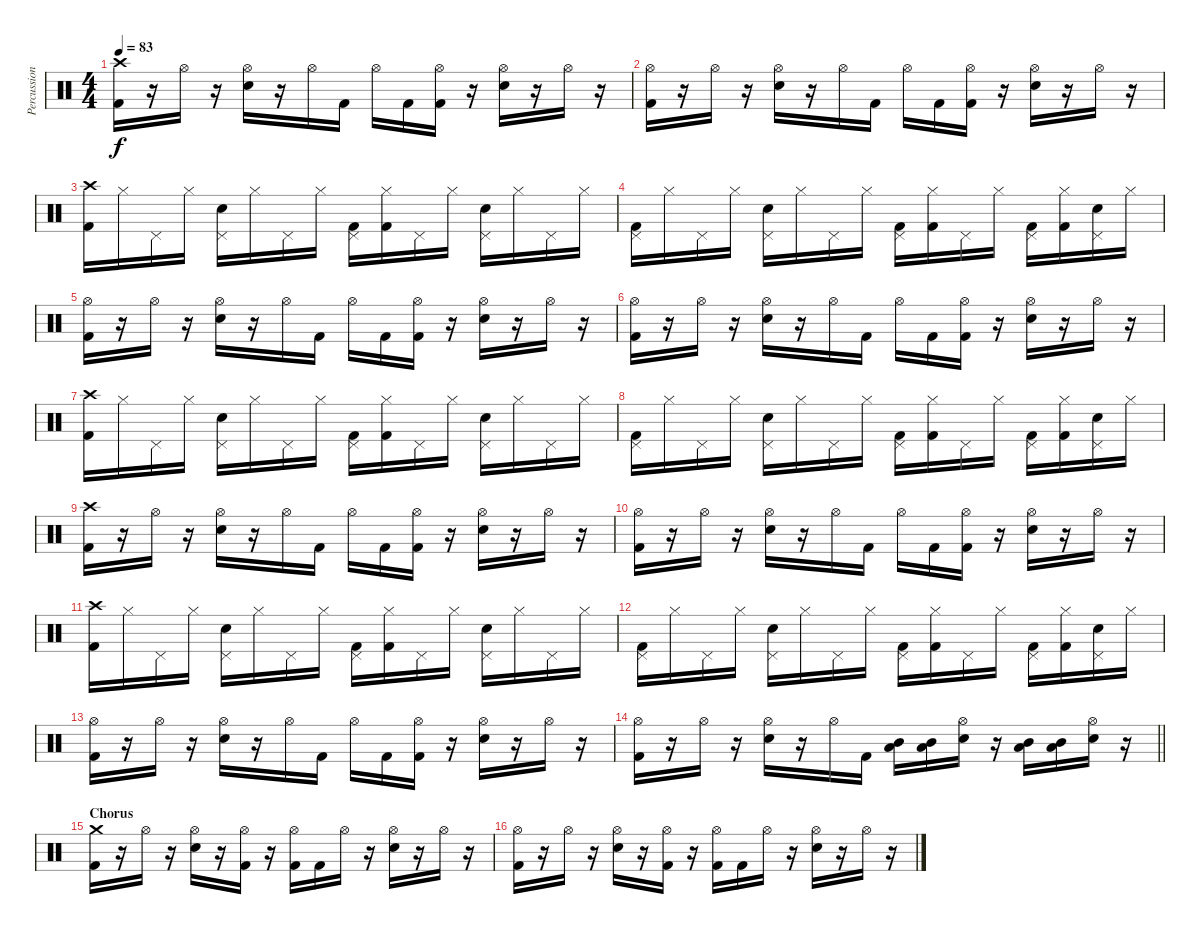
\track ("Percussion" "Percussion") {instrument percussion}
\staff {score}
\articulation defaults
\ts (4 4)
\tempo 83
\clef neutral
\ks c
("Crash high (hit)" "Kick (hit) 2").16{dy f} r.16 "Hi-Hat (open)".16 r.16 ("Hi-Hat (open)" "Electric Snare (hit)").16 r.16 "Hi-Hat (open)".16 "Kick (hit) 2".16 "Hi-Hat (open)".16 "Kick (hit) 2".16 ("Hi-Hat (open)" "Kick (hit) 2").16 r.16 ("Hi-Hat (open)" "Electric Snare (hit)").16 r.16 "Hi-Hat (open)".16 r.16 |
("Hi-Hat (open)" "Kick (hit) 2").16 r.16 "Hi-Hat (open)".16 r.16 ("Hi-Hat (open)" "Electric Snare (hit)").16 r.16 "Hi-Hat (open)".16 "Kick (hit) 2".16 "Hi-Hat (open)".16 "Kick (hit) 2".16 ("Hi-Hat (open)" "Kick (hit) 2").16 r.16 ("Hi-Hat (open)" "Electric Snare (hit)").16 r.16 "Hi-Hat (open)".16 r.16 |
("Crash high (hit)" "Kick (hit) 2").16 "Hi-Hat (closed)".16 "Pedal Hi-Hat (hit)".16 "Hi-Hat (closed)".16 ("Pedal Hi-Hat (hit)" "Electric Snare (hit)").16 "Hi-Hat (closed)".16 "Pedal Hi-Hat (hit)".16 "Hi-Hat (closed)".16 ("Pedal Hi-Hat (hit)" "Kick (hit) 2").16 ("Hi-Hat (closed)" "Kick (hit) 2").16 "Pedal Hi-Hat (hit)".16 "Hi-Hat (closed)".16 ("Pedal Hi-Hat (hit)" "Electric Snare (hit)").16 "Hi-Hat (closed)".16 "Pedal Hi-Hat (hit)".16 "Hi-Hat (closed)".16 |
("Pedal Hi-Hat (hit)" "Kick (hit) 2").16 "Hi-Hat (closed)".16 "Pedal Hi-Hat (hit)".16 "Hi-Hat (closed)".16 ("Pedal Hi-Hat (hit)" "Electric Snare (hit)").16 "Hi-Hat (closed)".16 "Pedal Hi-Hat (hit)".16 "Hi-Hat (closed)".16 ("Pedal Hi-Hat (hit)" "Kick (hit) 2").16 ("Hi-Hat (closed)" "Kick (hit) 2").16 "Pedal Hi-Hat (hit)".16 "Hi-Hat (closed)".16 ("Pedal Hi-Hat (hit)" "Kick (hit) 2").16 ("Hi-Hat (closed)" "Kick (hit) 2").16 ("Pedal Hi-Hat (hit)" "Electric Snare (hit)").16 "Hi-Hat (closed)".16 |
("Hi-Hat (open)" "Kick (hit) 2").16 r.16 "Hi-Hat (open)".16 r.16 ("Hi-Hat (open)" "Electric Snare (hit)").16 r.16 "Hi-Hat (open)".16 "Kick (hit) 2".16 "Hi-Hat (open)".16 "Kick (hit) 2".16 ("Hi-Hat (open)" "Kick (hit) 2").16 r.16 ("Hi-Hat (open)" "Electric Snare (hit)").16 r.16 "Hi-Hat (open)".16 r.16 |
("Hi-Hat (open)" "Kick (hit) 2").16 r.16 "Hi-Hat (open)".16 r.16 ("Hi-Hat (open)" "Electric Snare (hit)").16 r.16 "Hi-Hat (open)".16 "Kick (hit) 2".16 "Hi-Hat (open)".16 "Kick (hit) 2".16 ("Hi-Hat (open)" "Kick (hit) 2").16 r.16 ("Hi-Hat (open)" "Electric Snare (hit)").16 r.16 "Hi-Hat (open)".16 r.16 |
("Crash high (hit)" "Kick (hit) 2").16 "Hi-Hat (closed)".16 "Pedal Hi-Hat (hit)".16 "Hi-Hat (closed)".16 ("Pedal Hi-Hat (hit)" "Electric Snare (hit)").16 "Hi-Hat (closed)".16 "Pedal Hi-Hat (hit)".16 "Hi-Hat (closed)".16 ("Pedal Hi-Hat (hit)" "Kick (hit) 2").16 ("Hi-Hat (closed)" "Kick (hit) 2").16 "Pedal Hi-Hat (hit)".16 "Hi-Hat (closed)".16 ("Pedal Hi-Hat (hit)" "Electric Snare (hit)").16 "Hi-Hat (closed)".16 "Pedal Hi-Hat (hit)".16 "Hi-Hat (closed)".16 |
("Pedal Hi-Hat (hit)" "Kick (hit) 2").16 "Hi-Hat (closed)".16 "Pedal Hi-Hat (hit)".16 "Hi-Hat (closed)".16 ("Pedal Hi-Hat (hit)" "Electric Snare (hit)").16 "Hi-Hat (closed)".16 "Pedal Hi-Hat (hit)".16 "Hi-Hat (closed)".16 ("Pedal Hi-Hat (hit)" "Kick (hit) 2").16 ("Hi-Hat (closed)" "Kick (hit) 2").16 "Pedal Hi-Hat (hit)".16 "Hi-Hat (closed)".16 ("Pedal Hi-Hat (hit)" "Kick (hit) 2").16 ("Hi-Hat (closed)" "Kick (hit) 2").16 ("Pedal Hi-Hat (hit)" "Electric Snare (hit)").16 "Hi-Hat (closed)".16 |
("Crash high (hit)" "Kick (hit) 2").16 r.16 "Hi-Hat (open)".16 r.16 ("Hi-Hat (open)" "Electric Snare (hit)").16 r.16 "Hi-Hat (open)".16 "Kick (hit) 2".16 "Hi-Hat (open)".16 "Kick (hit) 2".16 ("Hi-Hat (open)" "Kick (hit) 2").16 r.16 ("Hi-Hat (open)" "Electric Snare (hit)").16 r.16 "Hi-Hat (open)".16 r.16 |
("Hi-Hat (open)" "Kick (hit) 2").16 r.16 "Hi-Hat (open)".16 r.16 ("Hi-Hat (open)" "Electric Snare (hit)").16 r.16 "Hi-Hat (open)".16 "Kick (hit) 2".16 "Hi-Hat (open)".16 "Kick (hit) 2".16 ("Hi-Hat (open)" "Kick (hit) 2").16 r.16 ("Hi-Hat (open)" "Electric Snare (hit)").16 r.16 "Hi-Hat (open)".16 r.16 |
("Crash high (hit)" "Kick (hit) 2").16 "Hi-Hat (closed)".16 "Pedal Hi-Hat (hit)".16 "Hi-Hat (closed)".16 ("Pedal Hi-Hat (hit)" "Electric Snare (hit)").16 "Hi-Hat (closed)".16 "Pedal Hi-Hat (hit)".16 "Hi-Hat (closed)".16 ("Pedal Hi-Hat (hit)" "Kick (hit) 2").16 ("Hi-Hat (closed)" "Kick (hit) 2").16 "Pedal Hi-Hat (hit)".16 "Hi-Hat (closed)".16 ("Pedal Hi-Hat (hit)" "Electric Snare (hit)").16 "Hi-Hat (closed)".16 "Pedal Hi-Hat (hit)".16 "Hi-Hat (closed)".16 |
("Pedal Hi-Hat (hit)" "Kick (hit) 2").16 "Hi-Hat (closed)".16 "Pedal Hi-Hat (hit)".16 "Hi-Hat (closed)".16 ("Pedal Hi-Hat (hit)" "Electric Snare (hit)").16 "Hi-Hat (closed)".16 "Pedal Hi-Hat (hit)".16 "Hi-Hat (closed)".16 ("Pedal Hi-Hat (hit)" "Kick (hit) 2").16 ("Hi-Hat (closed)" "Kick (hit) 2").16 "Pedal Hi-Hat (hit)".16 "Hi-Hat (closed)".16 ("Pedal Hi-Hat (hit)" "Kick (hit) 2").16 ("Hi-Hat (closed)" "Kick (hit) 2").16 ("Pedal Hi-Hat (hit)" "Electric Snare (hit)").16 "Hi-Hat (closed)".16 |
("Hi-Hat (open)" "Kick (hit) 2").16 r.16 "Hi-Hat (open)".16 r.16 ("Hi-Hat (open)" "Electric Snare (hit)").16 r.16 "Hi-Hat (open)".16 "Kick (hit) 2".16 "Hi-Hat (open)".16 "Kick (hit) 2".16 ("Hi-Hat (open)" "Kick (hit) 2").16 r.16 ("Hi-Hat (open)" "Electric Snare (hit)").16 r.16 "Hi-Hat (open)".16 r.16 |
\barLineRight lightlight
("Hi-Hat (open)" "Kick (hit) 2").16 r.16 "Hi-Hat (open)".16 r.16 ("Hi-Hat (open)" "Electric Snare (hit)").16 r.16 "Hi-Hat (open)".16 "Kick (hit) 2".16 ("Mid Tom (hit)" "Low Tom (hit)").16 ("Mid Tom (hit)" "Low Tom (hit)").16 ("Hi-Hat (open)" "Electric Snare (hit)").16 r.16 ("Mid Tom (hit)" "Low Tom (hit)").16 ("Mid Tom (hit)" "Low Tom (hit)").16 ("Hi-Hat (open)" "Electric Snare (hit)").16 r.16 |
\section ("" "Chorus")
("Crash medium (hit)" "Kick (hit) 2").16 r.16 "Hi-Hat (open)".16 r.16 ("Hi-Hat (open)" "Electric Snare (hit)").16 r.16 ("Hi-Hat (open)" "Kick (hit) 2").16 r.16 ("Hi-Hat (open)" "Kick (hit) 2").16 "Kick (hit) 2".16 "Hi-Hat (open)".16 r.16 ("Hi-Hat (open)" "Electric Snare (hit)").16 r.16 "Hi-Hat (open)".16 r.16 |
("Hi-Hat (open)" "Kick (hit) 2").16 r.16 "Hi-Hat (open)".16 r.16 ("Hi-Hat (open)" "Electric Snare (hit)").16 r.16 ("Hi-Hat (open)" "Kick (hit) 2").16 r.16 ("Hi-Hat (open)" "Kick (hit) 2").16 "Kick (hit) 2".16 "Hi-Hat (open)".16 r.16 ("Hi-Hat (open)" "Electric Snare (hit)").16 r.16 "Hi-Hat (open)".16 r.16
